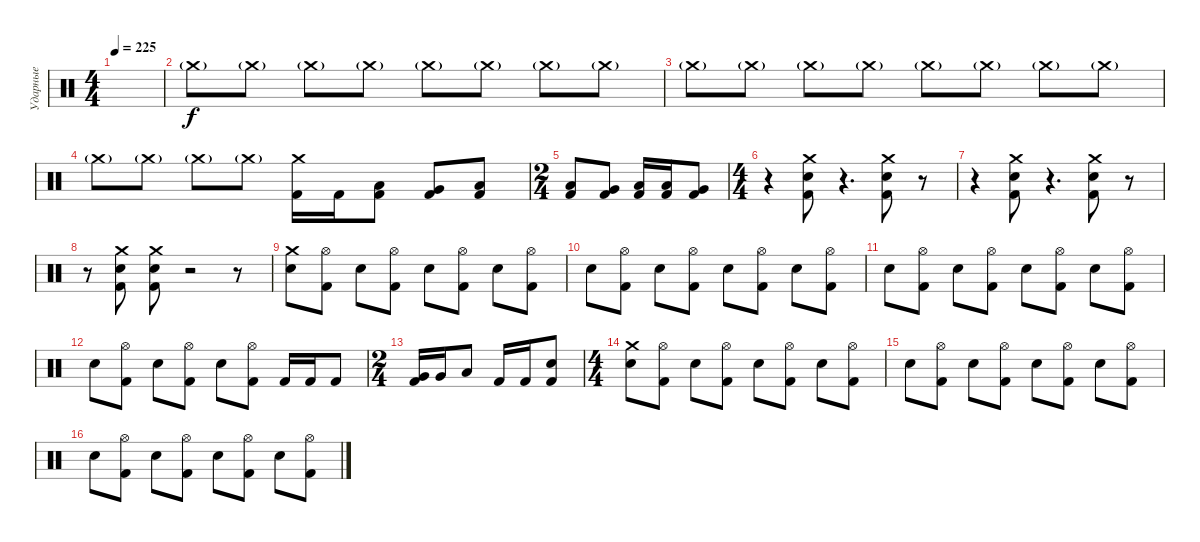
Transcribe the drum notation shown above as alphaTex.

\track ("Ударные" "Ударные") {instrument percussion}
\staff {score}
\articulation defaults
\ts (4 4)
\tempo 225
\clef neutral
\ks c
|
"Crash medium (hit)"{g}.8{volume 5} "Crash medium (hit)"{g}.8 "Crash medium (hit)"{g}.8 "Crash medium (hit)"{g}.8 "Crash medium (hit)"{g}.8 "Crash medium (hit)"{g}.8 "Crash medium (hit)"{g}.8 "Crash medium (hit)"{g}.8 |
"Crash medium (hit)"{g}.8{volume 8} "Crash medium (hit)"{g}.8 "Crash medium (hit)"{g}.8 "Crash medium (hit)"{g}.8 "Crash medium (hit)"{g}.8 "Crash medium (hit)"{g}.8 "Crash medium (hit)"{g}.8 "Crash medium (hit)"{g}.8 |
"Crash medium (hit)"{g}.8{volume 16} "Crash medium (hit)"{g}.8 "Crash medium (hit)"{g}.8 "Crash medium (hit)"{g}.8 ("Crash medium (hit)" "Kick (hit) 2").16{dy f} "Kick (hit) 2".16 ("Low Floor Tom (hit)" "Kick (hit) 2").8 ("Very Low Tom (hit)" "Kick (hit) 2").8 ("Low Tom (hit)" "Kick (hit) 2").8 |
\ts (2 4)
("Low Floor Tom (hit)" "Kick (hit) 2").8 ("Very Low Tom (hit)" "Kick (hit) 2").8 ("Low Tom (hit)" "Kick (hit) 2").16 ("Low Tom (hit)" "Kick (hit) 2").16 ("Very Low Tom (hit)" "Kick (hit) 2").8 |
\ts (4 4)
r.4 ("Crash medium (hit)" "Snare (hit) 2" "Kick (hit) 2").8 r.4{d} ("Crash medium (hit)" "Snare (hit) 2" "Kick (hit) 2").8 r.8 |
r.4 ("Crash medium (hit)" "Snare (hit) 2" "Kick (hit) 2").8 r.4{d} ("Crash medium (hit)" "Snare (hit) 2" "Kick (hit) 2").8 r.8 |
r.8 ("Crash medium (hit)" "Snare (hit) 2" "Kick (hit) 2").8 ("Crash medium (hit)" "Snare (hit) 2" "Kick (hit) 2").8 r.2 r.8 |
("Crash medium (hit)" "Snare (hit) 2").8 ("Hi-Hat (open)" "Kick (hit) 2").8 "Snare (hit) 2".8 ("Hi-Hat (open)" "Kick (hit) 2").8 "Snare (hit) 2".8 ("Hi-Hat (open)" "Kick (hit) 2").8 "Snare (hit) 2".8 ("Hi-Hat (open)" "Kick (hit) 2").8 |
"Snare (hit) 2".8 ("Hi-Hat (open)" "Kick (hit) 2").8 "Snare (hit) 2".8 ("Hi-Hat (open)" "Kick (hit) 2").8 "Snare (hit) 2".8 ("Hi-Hat (open)" "Kick (hit) 2").8 "Snare (hit) 2".8 ("Hi-Hat (open)" "Kick (hit) 2").8 |
"Snare (hit) 2".8 ("Hi-Hat (open)" "Kick (hit) 2").8 "Snare (hit) 2".8 ("Hi-Hat (open)" "Kick (hit) 2").8 "Snare (hit) 2".8 ("Hi-Hat (open)" "Kick (hit) 2").8 "Snare (hit) 2".8 ("Hi-Hat (open)" "Kick (hit) 2").8 |
"Snare (hit) 2".8 ("Hi-Hat (open)" "Kick (hit) 2").8 "Snare (hit) 2".8 ("Hi-Hat (open)" "Kick (hit) 2").8 "Snare (hit) 2".8 ("Hi-Hat (open)" "Kick (hit) 2").8 "Kick (hit) 2".16 "Kick (hit) 2".16 "Kick (hit) 2".8 |
\ts (2 4)
("Very Low Tom (hit)" "Kick (hit) 2").16 "Very Low Tom (hit)".16 "Low Tom (hit)".8 "Kick (hit) 2".16 "Kick (hit) 2".16 ("Snare (hit) 2" "Kick (hit) 2").8 |
\ts (4 4)
("Crash medium (hit)" "Snare (hit) 2").8 ("Hi-Hat (open)" "Kick (hit) 2").8 "Snare (hit) 2".8 ("Hi-Hat (open)" "Kick (hit) 2").8 "Snare (hit) 2".8 ("Hi-Hat (open)" "Kick (hit) 2").8 "Snare (hit) 2".8 ("Hi-Hat (open)" "Kick (hit) 2").8 |
"Snare (hit) 2".8 ("Hi-Hat (open)" "Kick (hit) 2").8 "Snare (hit) 2".8 ("Hi-Hat (open)" "Kick (hit) 2").8 "Snare (hit) 2".8 ("Hi-Hat (open)" "Kick (hit) 2").8 "Snare (hit) 2".8 ("Hi-Hat (open)" "Kick (hit) 2").8 |
"Snare (hit) 2".8 ("Hi-Hat (open)" "Kick (hit) 2").8 "Snare (hit) 2".8 ("Hi-Hat (open)" "Kick (hit) 2").8 "Snare (hit) 2".8 ("Hi-Hat (open)" "Kick (hit) 2").8 "Snare (hit) 2".8 ("Hi-Hat (open)" "Kick (hit) 2").8
